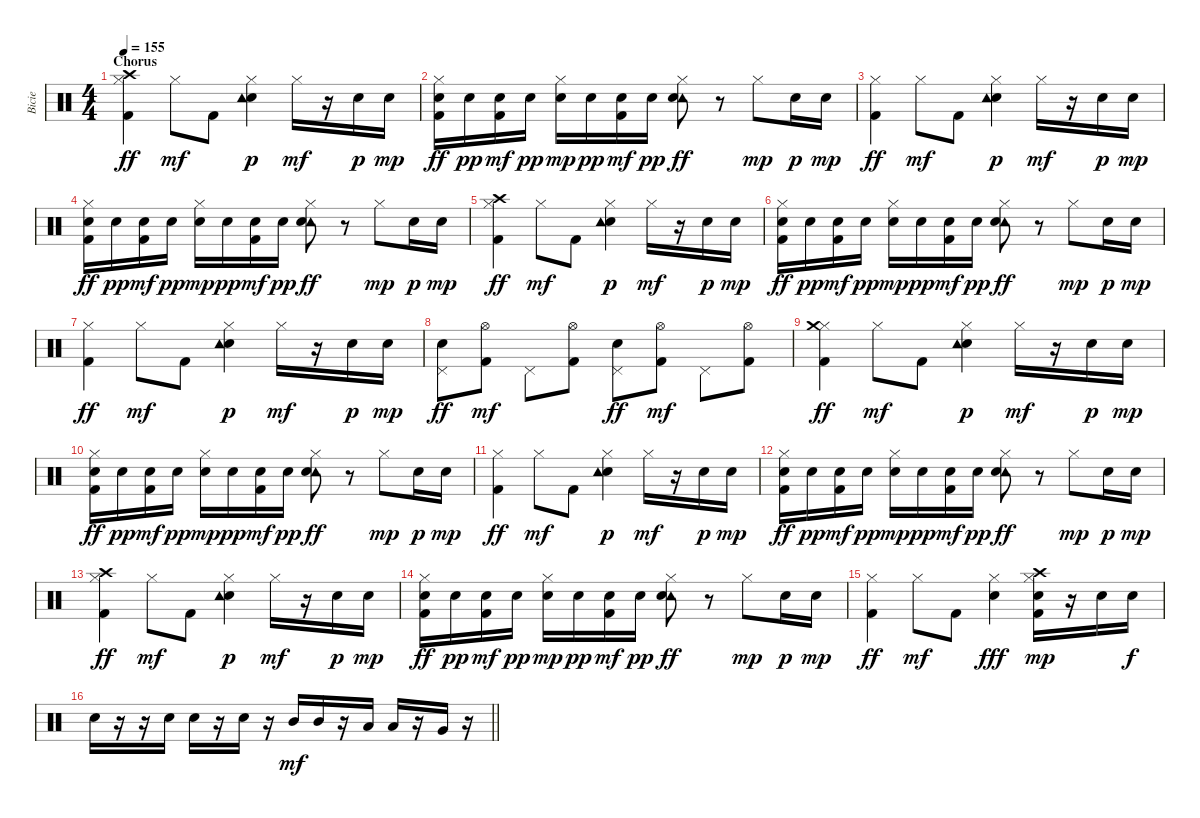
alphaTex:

\track ("Bicie" "Bicie") {instrument percussion}
\staff {score}
\articulation defaults
\ts (4 4)
\section ("" "Chorus")
\tempo 155
\clef neutral
\ks c
("Hi-Hat (closed)" "Crash high (hit)" "Kick (hit) 2").4{dy ff} "Hi-Hat (closed)".8{dy mf} "Kick (hit) 2".8 ("Hi-Hat (closed)" "Electric Snare (hit)" "Tambourine (hit)").4{dy p} "Hi-Hat (closed)".16{dy mf} r.16 "Electric Snare (hit)".16{dy p} "Electric Snare (hit)".16{dy mp} |
("Hi-Hat (closed)" "Electric Snare (hit)" "Kick (hit) 2").16{dy ff} "Electric Snare (hit)".16{dy pp} ("Electric Snare (hit)" "Kick (hit) 2").16{dy mf} "Electric Snare (hit)".16{dy pp} ("Hi-Hat (closed)" "Electric Snare (hit)").16{dy mp} "Electric Snare (hit)".16{dy pp} ("Electric Snare (hit)" "Kick (hit) 2").16{dy mf} "Electric Snare (hit)".16{dy pp} ("Hi-Hat (closed)" "Tambourine (hit)" "Electric Snare (hit)").8{dy ff} r.8 "Hi-Hat (closed)".8{dy mp} "Electric Snare (hit)".16{dy p} "Electric Snare (hit)".16{dy mp} |
("Hi-Hat (closed)" "Kick (hit) 2").4{dy ff} "Hi-Hat (closed)".8{dy mf} "Kick (hit) 2".8 ("Hi-Hat (closed)" "Electric Snare (hit)" "Tambourine (hit)").4{dy p} "Hi-Hat (closed)".16{dy mf} r.16 "Electric Snare (hit)".16{dy p} "Electric Snare (hit)".16{dy mp} |
("Hi-Hat (closed)" "Electric Snare (hit)" "Kick (hit) 2").16{dy ff} "Electric Snare (hit)".16{dy pp} ("Electric Snare (hit)" "Kick (hit) 2").16{dy mf} "Electric Snare (hit)".16{dy pp} ("Hi-Hat (closed)" "Electric Snare (hit)").16{dy mp} "Electric Snare (hit)".16{dy pp} ("Electric Snare (hit)" "Kick (hit) 2").16{dy mf} "Electric Snare (hit)".16{dy pp} ("Hi-Hat (closed)" "Tambourine (hit)" "Electric Snare (hit)").8{dy ff} r.8 "Hi-Hat (closed)".8{dy mp} "Electric Snare (hit)".16{dy p} "Electric Snare (hit)".16{dy mp} |
("Hi-Hat (closed)" "Crash high (hit)" "Kick (hit) 2").4{dy ff} "Hi-Hat (closed)".8{dy mf} "Kick (hit) 2".8 ("Hi-Hat (closed)" "Electric Snare (hit)" "Tambourine (hit)").4{dy p} "Hi-Hat (closed)".16{dy mf} r.16 "Electric Snare (hit)".16{dy p} "Electric Snare (hit)".16{dy mp} |
("Hi-Hat (closed)" "Electric Snare (hit)" "Kick (hit) 2").16{dy ff} "Electric Snare (hit)".16{dy pp} ("Electric Snare (hit)" "Kick (hit) 2").16{dy mf} "Electric Snare (hit)".16{dy pp} ("Hi-Hat (closed)" "Electric Snare (hit)").16{dy mp} "Electric Snare (hit)".16{dy pp} ("Electric Snare (hit)" "Kick (hit) 2").16{dy mf} "Electric Snare (hit)".16{dy pp} ("Hi-Hat (closed)" "Tambourine (hit)" "Electric Snare (hit)").8{dy ff} r.8 "Hi-Hat (closed)".8{dy mp} "Electric Snare (hit)".16{dy p} "Electric Snare (hit)".16{dy mp} |
("Hi-Hat (closed)" "Kick (hit) 2").4{dy ff} "Hi-Hat (closed)".8{dy mf} "Kick (hit) 2".8 ("Hi-Hat (closed)" "Electric Snare (hit)" "Tambourine (hit)").4{dy p} "Hi-Hat (closed)".16{dy mf} r.16 "Electric Snare (hit)".16{dy p} "Electric Snare (hit)".16{dy mp} |
("Pedal Hi-Hat (hit)" "Electric Snare (hit)").8{dy ff} ("Hi-Hat (open)" "Kick (hit) 2").8{dy mf} "Pedal Hi-Hat (hit)".8 ("Hi-Hat (open)" "Kick (hit) 2").8 ("Pedal Hi-Hat (hit)" "Electric Snare (hit)").8{dy ff} ("Hi-Hat (open)" "Kick (hit) 2").8{dy mf} "Pedal Hi-Hat (hit)".8 ("Hi-Hat (open)" "Kick (hit) 2").8 |
("Hi-Hat (closed)" "Crash medium (hit)" "Kick (hit) 2").4{dy ff} "Hi-Hat (closed)".8{dy mf} "Kick (hit) 2".8 ("Hi-Hat (closed)" "Electric Snare (hit)" "Tambourine (hit)").4{dy p} "Hi-Hat (closed)".16{dy mf} r.16 "Electric Snare (hit)".16{dy p} "Electric Snare (hit)".16{dy mp} |
("Hi-Hat (closed)" "Electric Snare (hit)" "Kick (hit) 2").16{dy ff} "Electric Snare (hit)".16{dy pp} ("Electric Snare (hit)" "Kick (hit) 2").16{dy mf} "Electric Snare (hit)".16{dy pp} ("Hi-Hat (closed)" "Electric Snare (hit)").16{dy mp} "Electric Snare (hit)".16{dy pp} ("Electric Snare (hit)" "Kick (hit) 2").16{dy mf} "Electric Snare (hit)".16{dy pp} ("Hi-Hat (closed)" "Tambourine (hit)" "Electric Snare (hit)").8{dy ff} r.8 "Hi-Hat (closed)".8{dy mp} "Electric Snare (hit)".16{dy p} "Electric Snare (hit)".16{dy mp} |
("Hi-Hat (closed)" "Kick (hit) 2").4{dy ff} "Hi-Hat (closed)".8{dy mf} "Kick (hit) 2".8 ("Hi-Hat (closed)" "Electric Snare (hit)" "Tambourine (hit)").4{dy p} "Hi-Hat (closed)".16{dy mf} r.16 "Electric Snare (hit)".16{dy p} "Electric Snare (hit)".16{dy mp} |
("Hi-Hat (closed)" "Electric Snare (hit)" "Kick (hit) 2").16{dy ff} "Electric Snare (hit)".16{dy pp} ("Electric Snare (hit)" "Kick (hit) 2").16{dy mf} "Electric Snare (hit)".16{dy pp} ("Hi-Hat (closed)" "Electric Snare (hit)").16{dy mp} "Electric Snare (hit)".16{dy pp} ("Electric Snare (hit)" "Kick (hit) 2").16{dy mf} "Electric Snare (hit)".16{dy pp} ("Hi-Hat (closed)" "Tambourine (hit)" "Electric Snare (hit)").8{dy ff} r.8 "Hi-Hat (closed)".8{dy mp} "Electric Snare (hit)".16{dy p} "Electric Snare (hit)".16{dy mp} |
("Hi-Hat (closed)" "Crash high (hit)" "Kick (hit) 2").4{dy ff} "Hi-Hat (closed)".8{dy mf} "Kick (hit) 2".8 ("Hi-Hat (closed)" "Electric Snare (hit)" "Tambourine (hit)").4{dy p} "Hi-Hat (closed)".16{dy mf} r.16 "Electric Snare (hit)".16{dy p} "Electric Snare (hit)".16{dy mp} |
("Hi-Hat (closed)" "Electric Snare (hit)" "Kick (hit) 2").16{dy ff} "Electric Snare (hit)".16{dy pp} ("Electric Snare (hit)" "Kick (hit) 2").16{dy mf} "Electric Snare (hit)".16{dy pp} ("Hi-Hat (closed)" "Electric Snare (hit)").16{dy mp} "Electric Snare (hit)".16{dy pp} ("Electric Snare (hit)" "Kick (hit) 2").16{dy mf} "Electric Snare (hit)".16{dy pp} ("Hi-Hat (closed)" "Tambourine (hit)" "Electric Snare (hit)").8{dy ff} r.8 "Hi-Hat (closed)".8{dy mp} "Electric Snare (hit)".16{dy p} "Electric Snare (hit)".16{dy mp} |
("Hi-Hat (closed)" "Kick (hit) 2").4{dy ff} "Hi-Hat (closed)".8{dy mf} "Kick (hit) 2".8 ("Hi-Hat (closed)" "Electric Snare (hit)").4{dy fff} ("Hi-Hat (closed)" "Electric Snare (hit)" "Kick (hit) 2" "Crash high (hit)").16{dy mp} r.16 "Electric Snare (hit)".16 "Electric Snare (hit)".16{dy f} |
\barLineRight lightlight "Electric Snare (hit)".16
r.16 r.16 "Electric Snare (hit)".16 "Electric Snare (hit)".16 r.16 "Electric Snare (hit)".16 r.16 "Mid Tom (hit)".16{dy mf} "Mid Tom (hit)".16 r.16 "Low Tom (hit)".16 "Low Tom (hit)".16 r.16 "Very Low Tom (hit)".16 r.16
